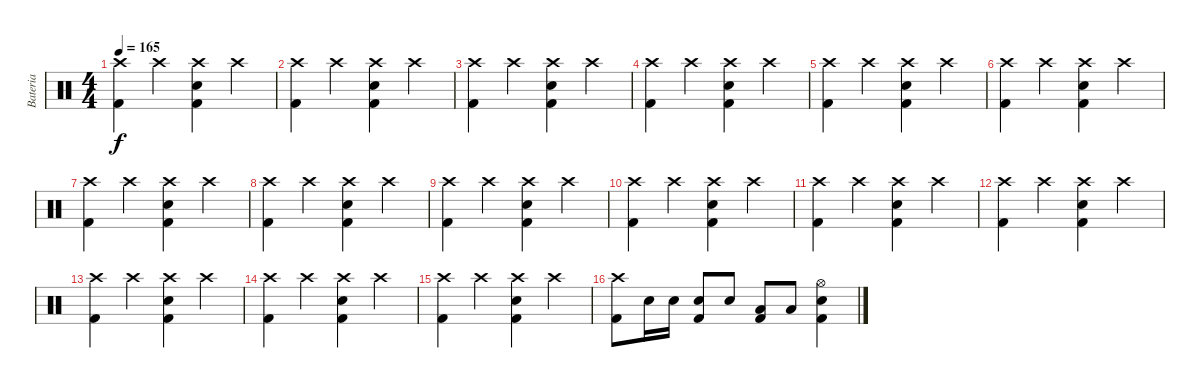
\track ("Bateria" "Bateria") {instrument percussion}
\staff {score}
\articulation defaults
\ts (4 4)
\tempo 165
\clef neutral
\ks c
("Crash high (hit)" "Kick (hit) 2").4{dy f} "Crash high (hit)".4 ("Crash high (hit)" "Kick (hit) 2" "Snare (hit) 2").4 "Crash high (hit)".4 |
("Crash high (hit)" "Kick (hit) 2").4 "Crash high (hit)".4 ("Crash high (hit)" "Kick (hit) 2" "Snare (hit) 2").4 "Crash high (hit)".4 |
("Crash high (hit)" "Kick (hit) 2").4 "Crash high (hit)".4 ("Crash high (hit)" "Kick (hit) 2" "Snare (hit) 2").4 "Crash high (hit)".4 |
("Crash high (hit)" "Kick (hit) 2").4 "Crash high (hit)".4 ("Crash high (hit)" "Kick (hit) 2" "Snare (hit) 2").4 "Crash high (hit)".4 |
("Crash high (hit)" "Kick (hit) 2").4 "Crash high (hit)".4 ("Crash high (hit)" "Kick (hit) 2" "Snare (hit) 2").4 "Crash high (hit)".4 |
("Crash high (hit)" "Kick (hit) 2").4 "Crash high (hit)".4 ("Crash high (hit)" "Kick (hit) 2" "Snare (hit) 2").4 "Crash high (hit)".4 |
("Crash high (hit)" "Kick (hit) 2").4 "Crash high (hit)".4 ("Crash high (hit)" "Kick (hit) 2" "Snare (hit) 2").4 "Crash high (hit)".4 |
("Crash high (hit)" "Kick (hit) 2").4 "Crash high (hit)".4 ("Crash high (hit)" "Kick (hit) 2" "Snare (hit) 2").4 "Crash high (hit)".4 |
("Crash high (hit)" "Kick (hit) 2").4 "Crash high (hit)".4 ("Crash high (hit)" "Kick (hit) 2" "Snare (hit) 2").4 "Crash high (hit)".4 |
("Crash high (hit)" "Kick (hit) 2").4 "Crash high (hit)".4 ("Crash high (hit)" "Kick (hit) 2" "Snare (hit) 2").4 "Crash high (hit)".4 |
("Crash high (hit)" "Kick (hit) 2").4 "Crash high (hit)".4 ("Crash high (hit)" "Kick (hit) 2" "Snare (hit) 2").4 "Crash high (hit)".4 |
("Crash high (hit)" "Kick (hit) 2").4 "Crash high (hit)".4 ("Crash high (hit)" "Kick (hit) 2" "Snare (hit) 2").4 "Crash high (hit)".4 |
("Crash high (hit)" "Kick (hit) 2").4 "Crash high (hit)".4 ("Crash high (hit)" "Kick (hit) 2" "Snare (hit) 2").4 "Crash high (hit)".4 |
("Crash high (hit)" "Kick (hit) 2").4 "Crash high (hit)".4 ("Crash high (hit)" "Kick (hit) 2" "Snare (hit) 2").4 "Crash high (hit)".4 |
("Crash high (hit)" "Kick (hit) 2").4 "Crash high (hit)".4 ("Crash high (hit)" "Kick (hit) 2" "Snare (hit) 2").4 "Crash high (hit)".4 |
("Crash high (hit)" "Kick (hit) 2").8 "Snare (hit) 2".16 "Snare (hit) 2".16 ("Kick (hit) 2" "Snare (hit) 2").8 "Snare (hit) 2".8 ("Kick (hit) 2" "Low Tom (hit)").8 "Low Tom (hit)".8 ("Hi-Hat (open)" "Kick (hit) 2" "Snare (hit) 2").4
